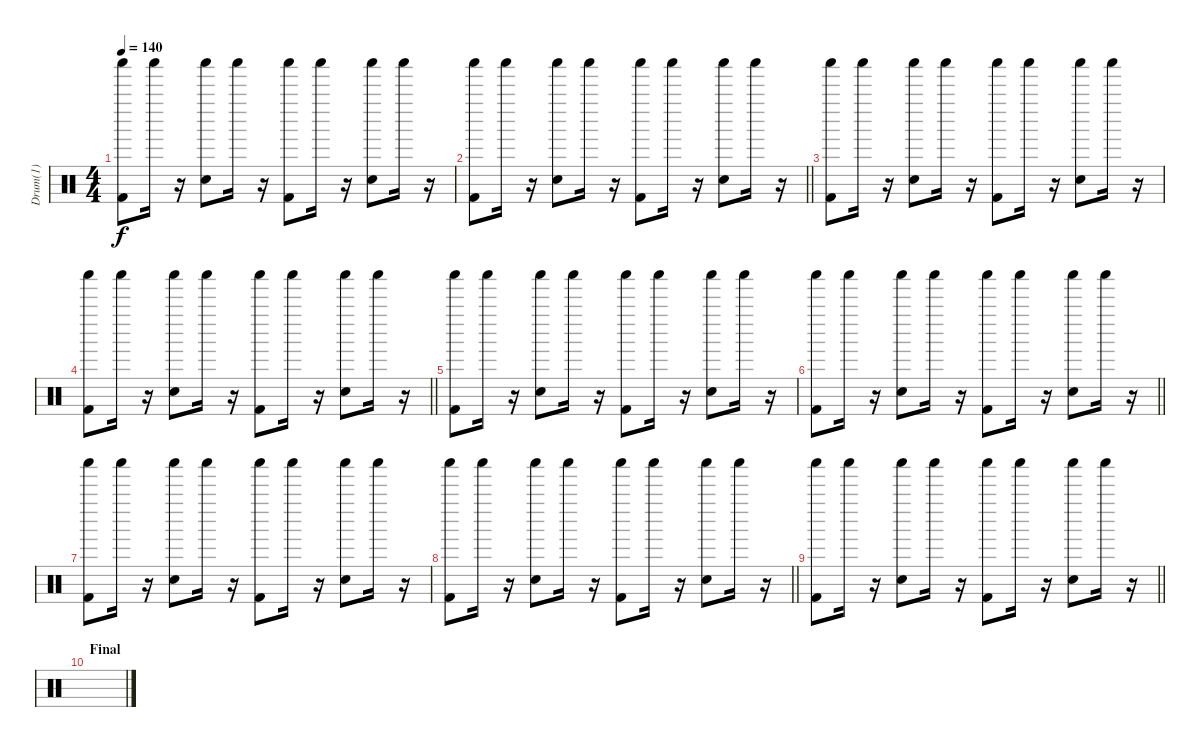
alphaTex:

\track ("Drum(1)" "Drum(1)") {instrument percussion}
\staff {score}
\articulation defaults
\ts (4 4)
\tempo 140
\clef neutral
\ks c
("Kick (hit) 2" "Shaker (hit)").8{dy f} "Shaker (hit)".16 r.16 ("Electric Snare (hit)" "Shaker (hit)").8 "Shaker (hit)".16 r.16 ("Kick (hit) 2" "Shaker (hit)").8 "Shaker (hit)".16 r.16 ("Electric Snare (hit)" "Shaker (hit)").8 "Shaker (hit)".16 r.16 |
\barLineRight lightlight
("Kick (hit) 2" "Shaker (hit)").8 "Shaker (hit)".16 r.16 ("Electric Snare (hit)" "Shaker (hit)").8 "Shaker (hit)".16 r.16 ("Kick (hit) 2" "Shaker (hit)").8 "Shaker (hit)".16 r.16 ("Electric Snare (hit)" "Shaker (hit)").8 "Shaker (hit)".16 r.16 |
("Kick (hit) 2" "Shaker (hit)").8 "Shaker (hit)".16 r.16 ("Electric Snare (hit)" "Shaker (hit)").8 "Shaker (hit)".16 r.16 ("Kick (hit) 2" "Shaker (hit)").8 "Shaker (hit)".16 r.16 ("Electric Snare (hit)" "Shaker (hit)").8 "Shaker (hit)".16 r.16 |
\barLineRight lightlight
("Kick (hit) 2" "Shaker (hit)").8 "Shaker (hit)".16 r.16 ("Electric Snare (hit)" "Shaker (hit)").8 "Shaker (hit)".16 r.16 ("Kick (hit) 2" "Shaker (hit)").8 "Shaker (hit)".16 r.16 ("Electric Snare (hit)" "Shaker (hit)").8 "Shaker (hit)".16 r.16 |
("Kick (hit) 2" "Shaker (hit)").8 "Shaker (hit)".16 r.16 ("Electric Snare (hit)" "Shaker (hit)").8 "Shaker (hit)".16 r.16 ("Kick (hit) 2" "Shaker (hit)").8 "Shaker (hit)".16 r.16 ("Electric Snare (hit)" "Shaker (hit)").8 "Shaker (hit)".16 r.16 |
\barLineRight lightlight
("Kick (hit) 2" "Shaker (hit)").8 "Shaker (hit)".16 r.16 ("Electric Snare (hit)" "Shaker (hit)").8 "Shaker (hit)".16 r.16 ("Kick (hit) 2" "Shaker (hit)").8 "Shaker (hit)".16 r.16 ("Electric Snare (hit)" "Shaker (hit)").8 "Shaker (hit)".16 r.16 |
("Kick (hit) 2" "Shaker (hit)").8 "Shaker (hit)".16 r.16 ("Electric Snare (hit)" "Shaker (hit)").8 "Shaker (hit)".16 r.16 ("Kick (hit) 2" "Shaker (hit)").8 "Shaker (hit)".16 r.16 ("Electric Snare (hit)" "Shaker (hit)").8 "Shaker (hit)".16 r.16 |
\barLineRight lightlight
("Kick (hit) 2" "Shaker (hit)").8 "Shaker (hit)".16 r.16 ("Electric Snare (hit)" "Shaker (hit)").8 "Shaker (hit)".16 r.16 ("Kick (hit) 2" "Shaker (hit)").8 "Shaker (hit)".16 r.16 ("Electric Snare (hit)" "Shaker (hit)").8 "Shaker (hit)".16 r.16 |
\barLineRight lightlight
("Kick (hit) 2" "Shaker (hit)").8 "Shaker (hit)".16 r.16 ("Electric Snare (hit)" "Shaker (hit)").8 "Shaker (hit)".16 r.16 ("Kick (hit) 2" "Shaker (hit)").8 "Shaker (hit)".16 r.16 ("Electric Snare (hit)" "Shaker (hit)").8 "Shaker (hit)".16 r.16 |
\section ("" "Final")
